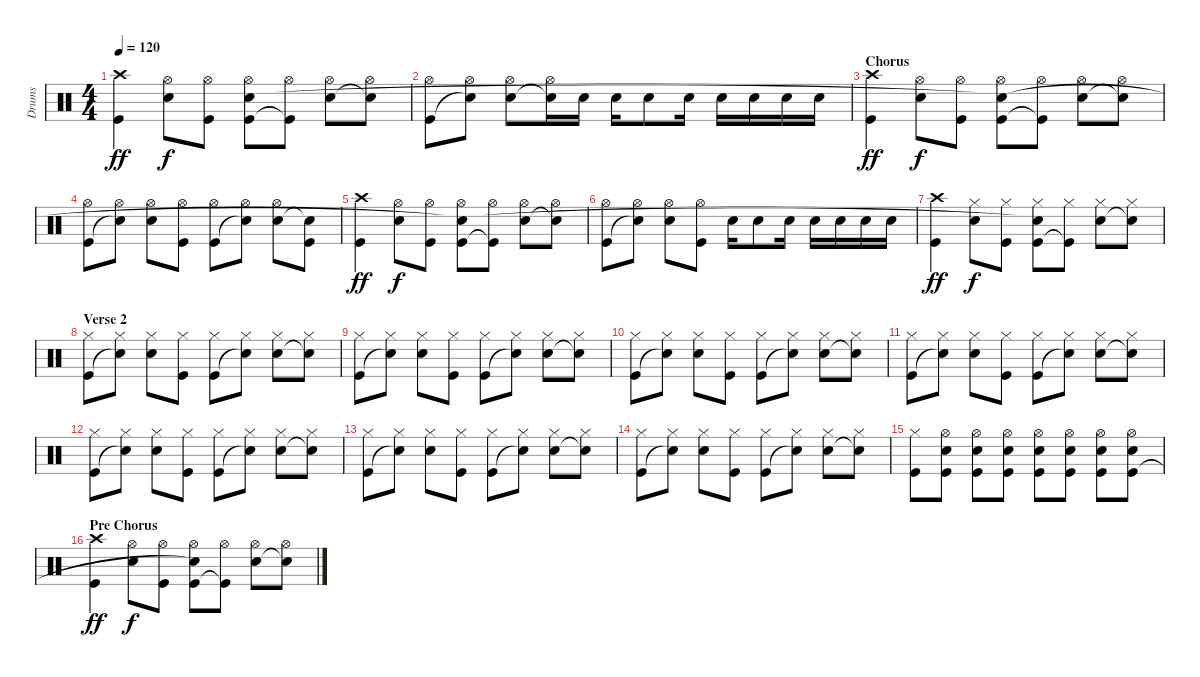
\track ("Drums" "Drums") {instrument percussion}
\staff {score}
\articulation defaults
\ts (4 4)
\tempo 120
\clef neutral
\ks c
("Kick (hit)" "Crash high (hit)").4{dy ff} ("Snare (hit) 2" "Hi-Hat (open)").8{dy f} ("Kick (hit)" "Hi-Hat (open)").8 ("Kick (hit)" "Hi-Hat (open)" "Snare (hit)"{t}).8 ("Kick (hit)"{t} "Hi-Hat (open)").8 ("Snare (hit) 2" "Hi-Hat (open)").8 ("Snare (hit)"{t} "Hi-Hat (open)").8 |
("Kick (hit)" "Hi-Hat (open)").8 ("Snare (hit)"{t} "Hi-Hat (open)").8 ("Snare (hit) 2" "Hi-Hat (open)").8 ("Snare (hit)"{t} "Hi-Hat (open)").16 "Snare (hit) 2".16 "Snare (hit) 2".16 "Snare (hit) 2".8 "Snare (hit) 2".16 "Snare (hit) 2".16 "Snare (hit) 2".16 "Snare (hit) 2".16 "Snare (hit) 2".16 |
\section ("" "Chorus")
("Kick (hit)" "Crash high (hit)").4{dy ff} ("Snare (hit) 2" "Hi-Hat (open)").8{dy f} ("Kick (hit)" "Hi-Hat (open)").8 ("Kick (hit)" "Hi-Hat (open)" "Snare (hit)"{t}).8 ("Kick (hit)"{t} "Hi-Hat (open)").8 ("Snare (hit) 2" "Hi-Hat (open)").8 ("Snare (hit)"{t} "Hi-Hat (open)").8 |
("Kick (hit)" "Hi-Hat (open)").8 ("Snare (hit)"{t} "Hi-Hat (open)").8 ("Snare (hit) 2" "Hi-Hat (open)").8 ("Kick (hit)" "Hi-Hat (open)").8 ("Kick (hit)" "Hi-Hat (open)").8 ("Snare (hit)"{t} "Hi-Hat (open)").8 ("Snare (hit) 2" "Hi-Hat (open)").8 ("Snare (hit)"{t} "Kick (hit)").8 |
("Kick (hit)" "Crash high (hit)").4{dy ff} ("Snare (hit) 2" "Hi-Hat (open)").8{dy f} ("Kick (hit)" "Hi-Hat (open)").8 ("Kick (hit)" "Hi-Hat (open)" "Snare (hit)"{t}).8 ("Kick (hit)"{t} "Hi-Hat (open)").8 ("Snare (hit) 2" "Hi-Hat (open)").8 ("Snare (hit)"{t} "Hi-Hat (open)").8 |
("Kick (hit)" "Hi-Hat (open)").8 ("Snare (hit)"{t} "Hi-Hat (open)").8 ("Snare (hit) 2" "Hi-Hat (open)").8 ("Kick (hit)" "Hi-Hat (open)").8 "Snare (hit) 2".16 "Snare (hit) 2".8 "Snare (hit) 2".16 "Snare (hit) 2".16 "Snare (hit) 2".16 "Snare (hit) 2".16 "Snare (hit) 2".16 |
("Kick (hit)" "Crash high (hit)").4{dy ff} ("Snare (hit) 2" "Hi-Hat (closed)").8{dy f} ("Kick (hit)" "Hi-Hat (closed)").8 ("Kick (hit)" "Hi-Hat (closed)" "Snare (hit)"{t}).8 ("Kick (hit)"{t} "Hi-Hat (closed)").8 ("Snare (hit) 2" "Hi-Hat (closed)").8 ("Snare (hit)"{t} "Hi-Hat (closed)").8 |
\section ("" "Verse 2")
("Kick (hit)" "Hi-Hat (closed)").8 ("Snare (hit)"{t} "Hi-Hat (closed)").8 ("Snare (hit) 2" "Hi-Hat (closed)").8 ("Kick (hit)" "Hi-Hat (closed)").8 ("Kick (hit)" "Hi-Hat (closed)").8 ("Snare (hit)"{t} "Hi-Hat (closed)").8 ("Snare (hit) 2" "Hi-Hat (closed)").8 ("Snare (hit)"{t} "Hi-Hat (closed)").8 |
("Kick (hit)" "Hi-Hat (closed)").8 ("Snare (hit)"{t} "Hi-Hat (closed)").8 ("Snare (hit) 2" "Hi-Hat (closed)").8 ("Kick (hit)" "Hi-Hat (closed)").8 ("Kick (hit)" "Hi-Hat (closed)").8 ("Snare (hit)"{t} "Hi-Hat (closed)").8 ("Snare (hit) 2" "Hi-Hat (closed)").8 ("Snare (hit)"{t} "Hi-Hat (closed)").8 |
("Kick (hit)" "Hi-Hat (closed)").8 ("Snare (hit)"{t} "Hi-Hat (closed)").8 ("Snare (hit) 2" "Hi-Hat (closed)").8 ("Kick (hit)" "Hi-Hat (closed)").8 ("Kick (hit)" "Hi-Hat (closed)").8 ("Snare (hit)"{t} "Hi-Hat (closed)").8 ("Snare (hit) 2" "Hi-Hat (closed)").8 ("Snare (hit)"{t} "Hi-Hat (closed)").8 |
("Kick (hit)" "Hi-Hat (closed)").8 ("Snare (hit)"{t} "Hi-Hat (closed)").8 ("Snare (hit) 2" "Hi-Hat (closed)").8 ("Kick (hit)" "Hi-Hat (closed)").8 ("Kick (hit)" "Hi-Hat (closed)").8 ("Snare (hit)"{t} "Hi-Hat (closed)").8 ("Snare (hit) 2" "Hi-Hat (closed)").8 ("Snare (hit)"{t} "Hi-Hat (closed)").8 |
("Kick (hit)" "Hi-Hat (closed)").8 ("Snare (hit)"{t} "Hi-Hat (closed)").8 ("Snare (hit) 2" "Hi-Hat (closed)").8 ("Kick (hit)" "Hi-Hat (closed)").8 ("Kick (hit)" "Hi-Hat (closed)").8 ("Snare (hit)"{t} "Hi-Hat (closed)").8 ("Snare (hit) 2" "Hi-Hat (closed)").8 ("Snare (hit)"{t} "Hi-Hat (closed)").8 |
("Kick (hit)" "Hi-Hat (closed)").8 ("Snare (hit)"{t} "Hi-Hat (closed)").8 ("Snare (hit) 2" "Hi-Hat (closed)").8 ("Kick (hit)" "Hi-Hat (closed)").8 ("Kick (hit)" "Hi-Hat (closed)").8 ("Snare (hit)"{t} "Hi-Hat (closed)").8 ("Snare (hit) 2" "Hi-Hat (closed)").8 ("Snare (hit)"{t} "Hi-Hat (closed)").8 |
("Kick (hit)" "Hi-Hat (closed)").8 ("Snare (hit)"{t} "Hi-Hat (closed)").8 ("Snare (hit) 2" "Hi-Hat (closed)").8 ("Kick (hit)" "Hi-Hat (closed)").8 ("Kick (hit)" "Hi-Hat (closed)").8 ("Snare (hit)"{t} "Hi-Hat (closed)").8 ("Snare (hit) 2" "Hi-Hat (closed)").8 ("Snare (hit)"{t} "Hi-Hat (closed)").8 |
("Kick (hit)" "Hi-Hat (closed)").8 ("Snare (hit) 2" "Hi-Hat (open)" "Kick (hit)").8 ("Snare (hit) 2" "Hi-Hat (open)" "Kick (hit)").8 ("Snare (hit) 2" "Hi-Hat (open)" "Kick (hit)").8 ("Snare (hit) 2" "Hi-Hat (open)" "Kick (hit)").8 ("Snare (hit) 2" "Hi-Hat (open)" "Kick (hit)").8 ("Snare (hit) 2" "Hi-Hat (open)" "Kick (hit)").8 ("Snare (hit) 2" "Hi-Hat (open)" "Kick (hit)").8 |
\section ("" "Pre Chorus")
("Kick (hit)" "Crash high (hit)").4{dy ff} ("Snare (hit) 2" "Hi-Hat (open)").8{dy f} ("Kick (hit)" "Hi-Hat (open)").8 ("Kick (hit)" "Hi-Hat (open)" "Snare (hit)"{t}).8 ("Kick (hit)"{t} "Hi-Hat (open)").8 ("Snare (hit) 2" "Hi-Hat (open)").8 ("Snare (hit)"{t} "Hi-Hat (open)").8
